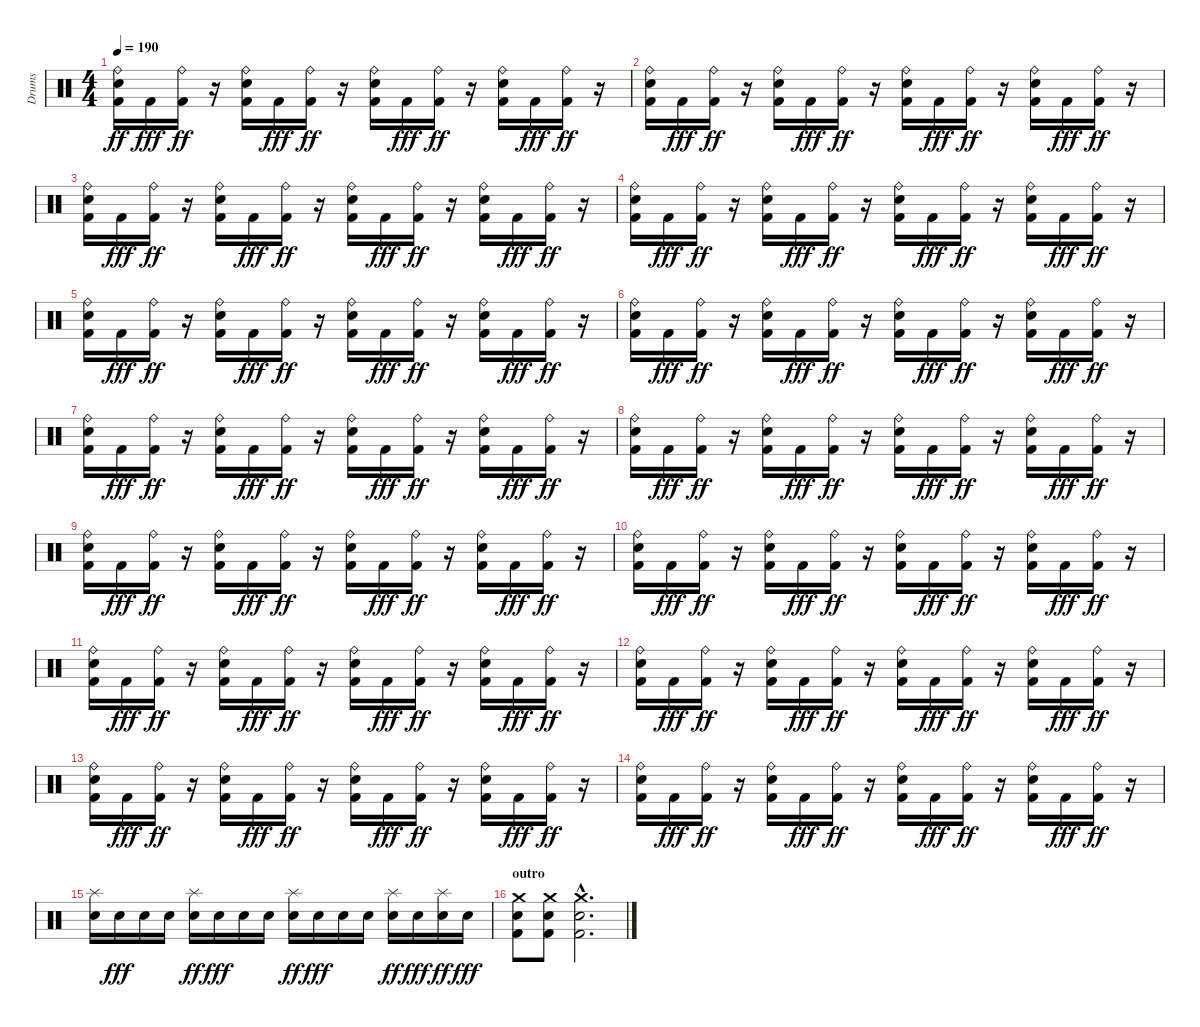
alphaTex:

\track ("Drums" "Drums") {instrument percussion}
\staff {score}
\articulation defaults
\ts (4 4)
\tempo 190
\clef neutral
\ks c
("Kick (hit) 2" "Ride (bell)" "Electric Snare (hit)").16{dy ff} "Kick (hit) 2".16{dy fff} ("Kick (hit) 2" "Ride (bell)").16{dy ff} r.16 ("Kick (hit) 2" "Ride (bell)" "Electric Snare (hit)").16 "Kick (hit) 2".16{dy fff} ("Kick (hit) 2" "Ride (bell)").16{dy ff} r.16 ("Kick (hit) 2" "Ride (bell)" "Electric Snare (hit)").16 "Kick (hit) 2".16{dy fff} ("Kick (hit) 2" "Ride (bell)").16{dy ff} r.16 ("Kick (hit) 2" "Ride (bell)" "Electric Snare (hit)").16 "Kick (hit) 2".16{dy fff} ("Kick (hit) 2" "Ride (bell)").16{dy ff} r.16 |
("Kick (hit) 2" "Ride (bell)" "Electric Snare (hit)").16 "Kick (hit) 2".16{dy fff} ("Kick (hit) 2" "Ride (bell)").16{dy ff} r.16 ("Kick (hit) 2" "Ride (bell)" "Electric Snare (hit)").16 "Kick (hit) 2".16{dy fff} ("Kick (hit) 2" "Ride (bell)").16{dy ff} r.16 ("Kick (hit) 2" "Ride (bell)" "Electric Snare (hit)").16 "Kick (hit) 2".16{dy fff} ("Kick (hit) 2" "Ride (bell)").16{dy ff} r.16 ("Kick (hit) 2" "Ride (bell)" "Electric Snare (hit)").16 "Kick (hit) 2".16{dy fff} ("Kick (hit) 2" "Ride (bell)").16{dy ff} r.16 |
("Kick (hit) 2" "Ride (bell)" "Electric Snare (hit)").16 "Kick (hit) 2".16{dy fff} ("Kick (hit) 2" "Ride (bell)").16{dy ff} r.16 ("Kick (hit) 2" "Ride (bell)" "Electric Snare (hit)").16 "Kick (hit) 2".16{dy fff} ("Kick (hit) 2" "Ride (bell)").16{dy ff} r.16 ("Kick (hit) 2" "Ride (bell)" "Electric Snare (hit)").16 "Kick (hit) 2".16{dy fff} ("Kick (hit) 2" "Ride (bell)").16{dy ff} r.16 ("Kick (hit) 2" "Ride (bell)" "Electric Snare (hit)").16 "Kick (hit) 2".16{dy fff} ("Kick (hit) 2" "Ride (bell)").16{dy ff} r.16 |
("Kick (hit) 2" "Ride (bell)" "Electric Snare (hit)").16 "Kick (hit) 2".16{dy fff} ("Kick (hit) 2" "Ride (bell)").16{dy ff} r.16 ("Kick (hit) 2" "Ride (bell)" "Electric Snare (hit)").16 "Kick (hit) 2".16{dy fff} ("Kick (hit) 2" "Ride (bell)").16{dy ff} r.16 ("Kick (hit) 2" "Ride (bell)" "Electric Snare (hit)").16 "Kick (hit) 2".16{dy fff} ("Kick (hit) 2" "Ride (bell)").16{dy ff} r.16 ("Kick (hit) 2" "Ride (bell)" "Electric Snare (hit)").16 "Kick (hit) 2".16{dy fff} ("Kick (hit) 2" "Ride (bell)").16{dy ff} r.16 |
("Kick (hit) 2" "Ride (bell)" "Electric Snare (hit)").16 "Kick (hit) 2".16{dy fff} ("Kick (hit) 2" "Ride (bell)").16{dy ff} r.16 ("Kick (hit) 2" "Ride (bell)" "Electric Snare (hit)").16 "Kick (hit) 2".16{dy fff} ("Kick (hit) 2" "Ride (bell)").16{dy ff} r.16 ("Kick (hit) 2" "Ride (bell)" "Electric Snare (hit)").16 "Kick (hit) 2".16{dy fff} ("Kick (hit) 2" "Ride (bell)").16{dy ff} r.16 ("Kick (hit) 2" "Ride (bell)" "Electric Snare (hit)").16 "Kick (hit) 2".16{dy fff} ("Kick (hit) 2" "Ride (bell)").16{dy ff} r.16 |
("Kick (hit) 2" "Ride (bell)" "Electric Snare (hit)").16 "Kick (hit) 2".16{dy fff} ("Kick (hit) 2" "Ride (bell)").16{dy ff} r.16 ("Kick (hit) 2" "Ride (bell)" "Electric Snare (hit)").16 "Kick (hit) 2".16{dy fff} ("Kick (hit) 2" "Ride (bell)").16{dy ff} r.16 ("Kick (hit) 2" "Ride (bell)" "Electric Snare (hit)").16 "Kick (hit) 2".16{dy fff} ("Kick (hit) 2" "Ride (bell)").16{dy ff} r.16 ("Kick (hit) 2" "Ride (bell)" "Electric Snare (hit)").16 "Kick (hit) 2".16{dy fff} ("Kick (hit) 2" "Ride (bell)").16{dy ff} r.16 |
("Kick (hit) 2" "Ride (bell)" "Electric Snare (hit)").16 "Kick (hit) 2".16{dy fff} ("Kick (hit) 2" "Ride (bell)").16{dy ff} r.16 ("Kick (hit) 2" "Ride (bell)" "Electric Snare (hit)").16 "Kick (hit) 2".16{dy fff} ("Kick (hit) 2" "Ride (bell)").16{dy ff} r.16 ("Kick (hit) 2" "Ride (bell)" "Electric Snare (hit)").16 "Kick (hit) 2".16{dy fff} ("Kick (hit) 2" "Ride (bell)").16{dy ff} r.16 ("Kick (hit) 2" "Ride (bell)" "Electric Snare (hit)").16 "Kick (hit) 2".16{dy fff} ("Kick (hit) 2" "Ride (bell)").16{dy ff} r.16 |
("Kick (hit) 2" "Ride (bell)" "Electric Snare (hit)").16 "Kick (hit) 2".16{dy fff} ("Kick (hit) 2" "Ride (bell)").16{dy ff} r.16 ("Kick (hit) 2" "Ride (bell)" "Electric Snare (hit)").16 "Kick (hit) 2".16{dy fff} ("Kick (hit) 2" "Ride (bell)").16{dy ff} r.16 ("Kick (hit) 2" "Ride (bell)" "Electric Snare (hit)").16 "Kick (hit) 2".16{dy fff} ("Kick (hit) 2" "Ride (bell)").16{dy ff} r.16 ("Kick (hit) 2" "Ride (bell)" "Electric Snare (hit)").16 "Kick (hit) 2".16{dy fff} ("Kick (hit) 2" "Ride (bell)").16{dy ff} r.16 |
("Kick (hit) 2" "Ride (bell)" "Electric Snare (hit)").16 "Kick (hit) 2".16{dy fff} ("Kick (hit) 2" "Ride (bell)").16{dy ff} r.16 ("Kick (hit) 2" "Ride (bell)" "Electric Snare (hit)").16 "Kick (hit) 2".16{dy fff} ("Kick (hit) 2" "Ride (bell)").16{dy ff} r.16 ("Kick (hit) 2" "Ride (bell)" "Electric Snare (hit)").16 "Kick (hit) 2".16{dy fff} ("Kick (hit) 2" "Ride (bell)").16{dy ff} r.16 ("Kick (hit) 2" "Ride (bell)" "Electric Snare (hit)").16 "Kick (hit) 2".16{dy fff} ("Kick (hit) 2" "Ride (bell)").16{dy ff} r.16 |
("Kick (hit) 2" "Ride (bell)" "Electric Snare (hit)").16 "Kick (hit) 2".16{dy fff} ("Kick (hit) 2" "Ride (bell)").16{dy ff} r.16 ("Kick (hit) 2" "Ride (bell)" "Electric Snare (hit)").16 "Kick (hit) 2".16{dy fff} ("Kick (hit) 2" "Ride (bell)").16{dy ff} r.16 ("Kick (hit) 2" "Ride (bell)" "Electric Snare (hit)").16 "Kick (hit) 2".16{dy fff} ("Kick (hit) 2" "Ride (bell)").16{dy ff} r.16 ("Kick (hit) 2" "Ride (bell)" "Electric Snare (hit)").16 "Kick (hit) 2".16{dy fff} ("Kick (hit) 2" "Ride (bell)").16{dy ff} r.16 |
("Kick (hit) 2" "Ride (bell)" "Electric Snare (hit)").16 "Kick (hit) 2".16{dy fff} ("Kick (hit) 2" "Ride (bell)").16{dy ff} r.16 ("Kick (hit) 2" "Ride (bell)" "Electric Snare (hit)").16 "Kick (hit) 2".16{dy fff} ("Kick (hit) 2" "Ride (bell)").16{dy ff} r.16 ("Kick (hit) 2" "Ride (bell)" "Electric Snare (hit)").16 "Kick (hit) 2".16{dy fff} ("Kick (hit) 2" "Ride (bell)").16{dy ff} r.16 ("Kick (hit) 2" "Ride (bell)" "Electric Snare (hit)").16 "Kick (hit) 2".16{dy fff} ("Kick (hit) 2" "Ride (bell)").16{dy ff} r.16 |
("Kick (hit) 2" "Ride (bell)" "Electric Snare (hit)").16 "Kick (hit) 2".16{dy fff} ("Kick (hit) 2" "Ride (bell)").16{dy ff} r.16 ("Kick (hit) 2" "Ride (bell)" "Electric Snare (hit)").16 "Kick (hit) 2".16{dy fff} ("Kick (hit) 2" "Ride (bell)").16{dy ff} r.16 ("Kick (hit) 2" "Ride (bell)" "Electric Snare (hit)").16 "Kick (hit) 2".16{dy fff} ("Kick (hit) 2" "Ride (bell)").16{dy ff} r.16 ("Kick (hit) 2" "Ride (bell)" "Electric Snare (hit)").16 "Kick (hit) 2".16{dy fff} ("Kick (hit) 2" "Ride (bell)").16{dy ff} r.16 |
("Kick (hit) 2" "Ride (bell)" "Electric Snare (hit)").16 "Kick (hit) 2".16{dy fff} ("Kick (hit) 2" "Ride (bell)").16{dy ff} r.16 ("Kick (hit) 2" "Ride (bell)" "Electric Snare (hit)").16 "Kick (hit) 2".16{dy fff} ("Kick (hit) 2" "Ride (bell)").16{dy ff} r.16 ("Kick (hit) 2" "Ride (bell)" "Electric Snare (hit)").16 "Kick (hit) 2".16{dy fff} ("Kick (hit) 2" "Ride (bell)").16{dy ff} r.16 ("Kick (hit) 2" "Ride (bell)" "Electric Snare (hit)").16 "Kick (hit) 2".16{dy fff} ("Kick (hit) 2" "Ride (bell)").16{dy ff} r.16 |
("Kick (hit) 2" "Ride (bell)" "Electric Snare (hit)").16 "Kick (hit) 2".16{dy fff} ("Kick (hit) 2" "Ride (bell)").16{dy ff} r.16 ("Kick (hit) 2" "Ride (bell)" "Electric Snare (hit)").16 "Kick (hit) 2".16{dy fff} ("Kick (hit) 2" "Ride (bell)").16{dy ff} r.16 ("Kick (hit) 2" "Ride (bell)" "Electric Snare (hit)").16 "Kick (hit) 2".16{dy fff} ("Kick (hit) 2" "Ride (bell)").16{dy ff} r.16 ("Kick (hit) 2" "Ride (bell)" "Electric Snare (hit)").16 "Kick (hit) 2".16{dy fff} ("Kick (hit) 2" "Ride (bell)").16{dy ff} r.16 |
("Electric Snare (hit)" "Splash (hit)").16 "Electric Snare (hit)".16{dy fff} "Electric Snare (hit)".16 "Electric Snare (hit)".16 ("Electric Snare (hit)" "Splash (hit)").16{dy ff} "Electric Snare (hit)".16{dy fff} "Electric Snare (hit)".16 "Electric Snare (hit)".16 ("Electric Snare (hit)" "Splash (hit)").16{dy ff} "Electric Snare (hit)".16{dy fff} "Electric Snare (hit)".16 "Electric Snare (hit)".16 ("Electric Snare (hit)" "Splash (hit)").16{dy ff} "Electric Snare (hit)".16{dy fff} ("Electric Snare (hit)" "Splash (hit)").16{dy ff} "Electric Snare (hit)".16{dy fff} |
\section ("" "outro")
("Crash medium (hit)" "Electric Snare (hit)" "Kick (hit) 2").8 ("Crash medium (hit)" "Electric Snare (hit)" "Kick (hit) 2").8 ("Crash medium (hit)"{hac} "Electric Snare (hit)"{hac} "Kick (hit) 2"{hac}).2{d}
